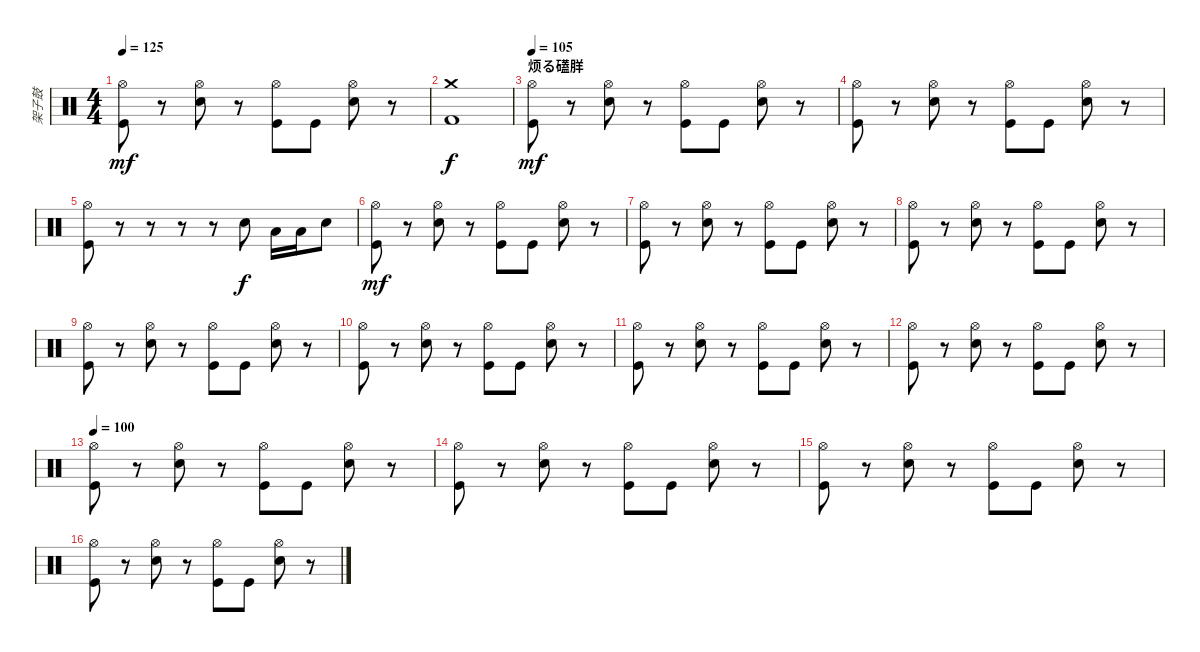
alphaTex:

\track ("架子鼓" "架子鼓") {instrument percussion}
\staff {score}
\articulation defaults
\ts (4 4)
\tempo 125
\clef neutral
\ks c
("Hi-Hat (open)" "Kick (hit)").8{dy mf} r.8 ("Hi-Hat (open)" "Snare (hit) 2").8 r.8 ("Hi-Hat (open)" "Kick (hit)").8 "Kick (hit)".8 ("Hi-Hat (open)" "Snare (hit) 2").8 r.8 |
("Crash medium (hit)" "Kick (hit) 2").1{dy f} |
\section ("" "烦る礚羘")
\tempo 100
\tempo 105
("Hi-Hat (open)" "Kick (hit)").8{dy mf} r.8 ("Hi-Hat (open)" "Snare (hit) 2").8 r.8 ("Hi-Hat (open)" "Kick (hit)").8 "Kick (hit)".8 ("Hi-Hat (open)" "Snare (hit) 2").8 r.8 |
("Hi-Hat (open)" "Kick (hit)").8 r.8 ("Hi-Hat (open)" "Snare (hit) 2").8 r.8 ("Hi-Hat (open)" "Kick (hit)").8 "Kick (hit)".8 ("Hi-Hat (open)" "Snare (hit) 2").8 r.8 |
("Hi-Hat (open)" "Kick (hit)").8 r.8 r.8 r.8 r.8 "Snare (hit) 2".8{dy f} "Low Tom (hit)".16 "Low Tom (hit)".16 "Snare (hit) 2".8 |
("Hi-Hat (open)" "Kick (hit)").8{dy mf} r.8 ("Hi-Hat (open)" "Snare (hit) 2").8 r.8 ("Hi-Hat (open)" "Kick (hit)").8 "Kick (hit)".8 ("Hi-Hat (open)" "Snare (hit) 2").8 r.8 |
("Hi-Hat (open)" "Kick (hit)").8 r.8 ("Hi-Hat (open)" "Snare (hit) 2").8 r.8 ("Hi-Hat (open)" "Kick (hit)").8 "Kick (hit)".8 ("Hi-Hat (open)" "Snare (hit) 2").8 r.8 |
("Hi-Hat (open)" "Kick (hit)").8 r.8 ("Hi-Hat (open)" "Snare (hit) 2").8 r.8 ("Hi-Hat (open)" "Kick (hit)").8 "Kick (hit)".8 ("Hi-Hat (open)" "Snare (hit) 2").8 r.8 |
("Hi-Hat (open)" "Kick (hit)").8 r.8 ("Hi-Hat (open)" "Snare (hit) 2").8 r.8 ("Hi-Hat (open)" "Kick (hit)").8 "Kick (hit)".8 ("Hi-Hat (open)" "Snare (hit) 2").8 r.8 |
("Hi-Hat (open)" "Kick (hit)").8 r.8 ("Hi-Hat (open)" "Snare (hit) 2").8 r.8 ("Hi-Hat (open)" "Kick (hit)").8 "Kick (hit)".8 ("Hi-Hat (open)" "Snare (hit) 2").8 r.8 |
("Hi-Hat (open)" "Kick (hit)").8 r.8 ("Hi-Hat (open)" "Snare (hit) 2").8 r.8 ("Hi-Hat (open)" "Kick (hit)").8 "Kick (hit)".8 ("Hi-Hat (open)" "Snare (hit) 2").8 r.8 |
("Hi-Hat (open)" "Kick (hit)").8 r.8 ("Hi-Hat (open)" "Snare (hit) 2").8 r.8 ("Hi-Hat (open)" "Kick (hit)").8 "Kick (hit)".8 ("Hi-Hat (open)" "Snare (hit) 2").8 r.8 |
\tempo 100
("Hi-Hat (open)" "Kick (hit)").8 r.8 ("Hi-Hat (open)" "Snare (hit) 2").8 r.8 ("Hi-Hat (open)" "Kick (hit)").8 "Kick (hit)".8 ("Hi-Hat (open)" "Snare (hit) 2").8 r.8 |
("Hi-Hat (open)" "Kick (hit)").8 r.8 ("Hi-Hat (open)" "Snare (hit) 2").8 r.8 ("Hi-Hat (open)" "Kick (hit)").8 "Kick (hit)".8 ("Hi-Hat (open)" "Snare (hit) 2").8 r.8 |
("Hi-Hat (open)" "Kick (hit)").8 r.8 ("Hi-Hat (open)" "Snare (hit) 2").8 r.8 ("Hi-Hat (open)" "Kick (hit)").8 "Kick (hit)".8 ("Hi-Hat (open)" "Snare (hit) 2").8 r.8 |
("Hi-Hat (open)" "Kick (hit)").8 r.8 ("Hi-Hat (open)" "Snare (hit) 2").8 r.8 ("Hi-Hat (open)" "Kick (hit)").8 "Kick (hit)".8 ("Hi-Hat (open)" "Snare (hit) 2").8 r.8
